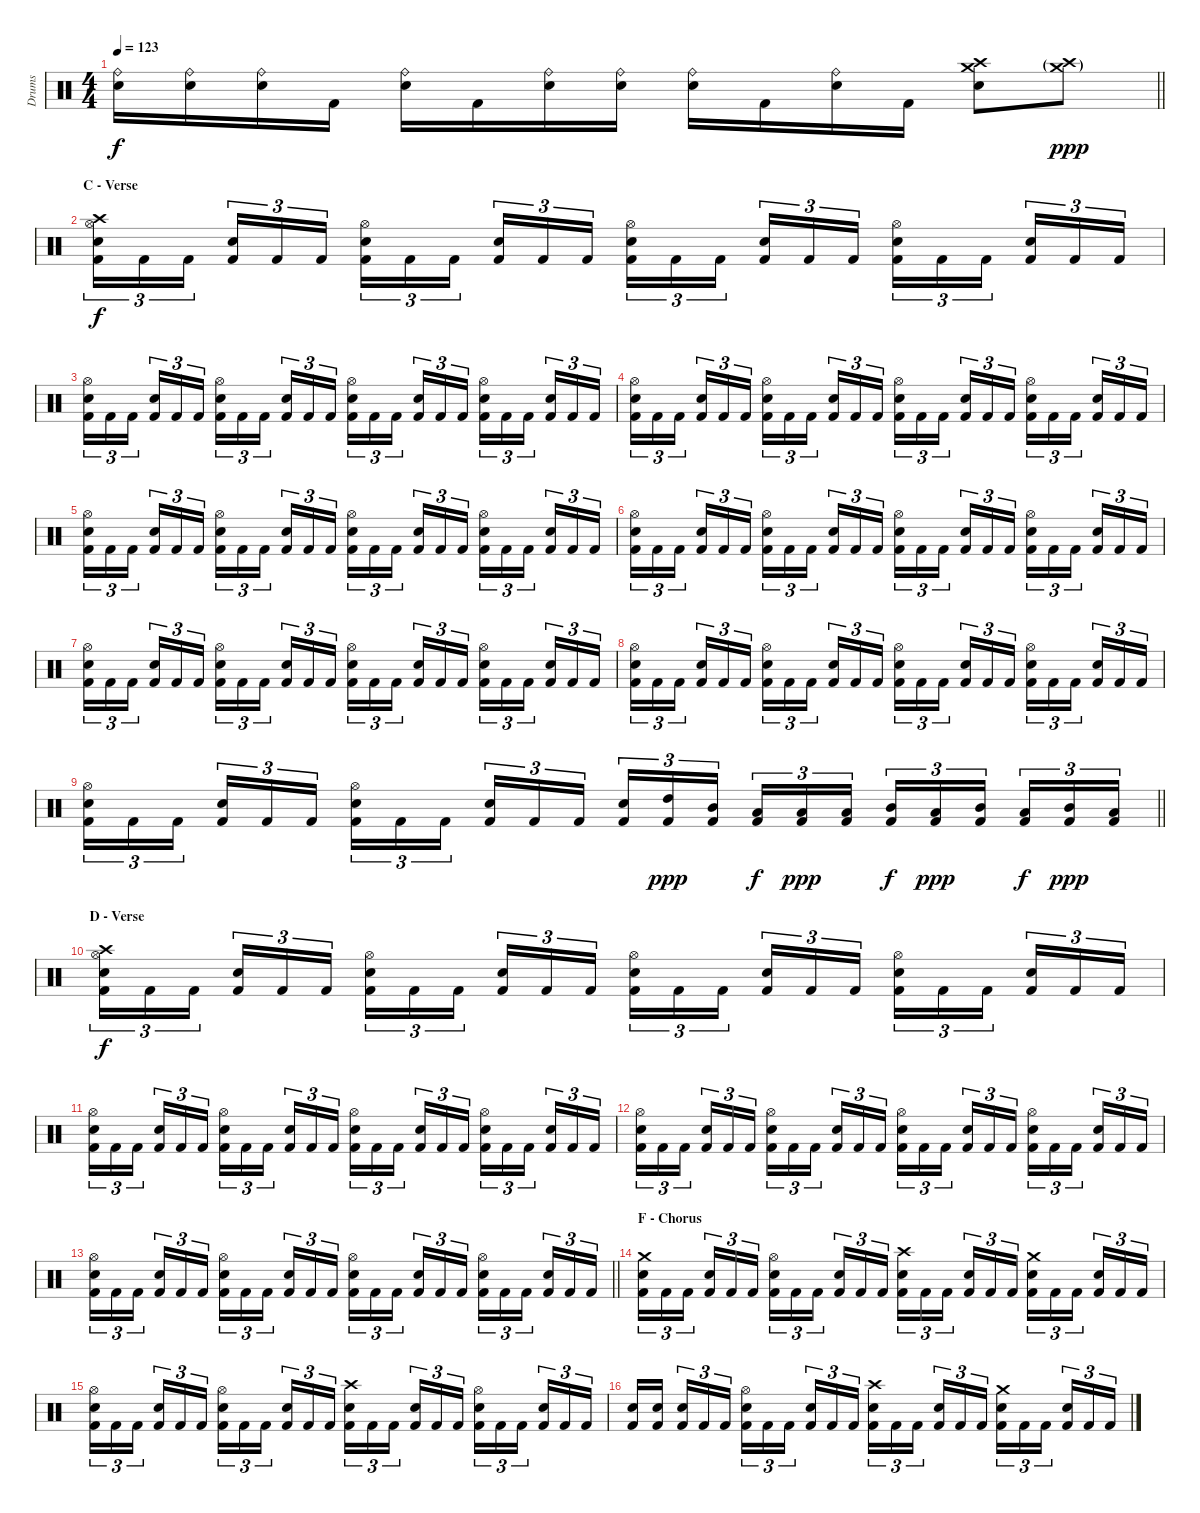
\track ("Drums" "Drums") {instrument percussion}
\staff {score}
\articulation defaults
\ts (4 4)
\tempo 123
\clef neutral
\barLineRight lightlight
\ks c
("Ride (bell)" "Snare (hit) 2").16{dy f} ("Ride (bell)" "Snare (hit) 2").16 ("Ride (bell)" "Snare (hit) 2").16 "Kick (hit) 2".16 ("Ride (bell)" "Snare (hit) 2").16 "Kick (hit) 2".16 ("Ride (bell)" "Snare (hit) 2").16 ("Ride (bell)" "Snare (hit) 2").16 ("Ride (bell)" "Snare (hit) 2").16 "Kick (hit) 2".16 ("Ride (bell)" "Snare (hit) 2").16 "Kick (hit) 2".16 ("Crash medium (hit)" "Crash high (hit)" "Snare (hit) 2").8 ("Crash medium (hit)"{g} "Crash high (hit)"{g}).8{dy ppp} |
\section ("" "C - Verse")
("Crash high (hit)" "Hi-Hat (open)" "Snare (hit) 2" "Kick (hit) 2").16{tu (3 2) dy f} "Kick (hit) 2".16{tu (3 2)} "Kick (hit) 2".16{tu (3 2) beam splitsecondary} ("Snare (hit) 2" "Kick (hit) 2").16{tu (3 2)} "Kick (hit) 2".16{tu (3 2)} "Kick (hit) 2".16{tu (3 2)} ("Hi-Hat (open)" "Snare (hit) 2" "Kick (hit) 2").16{tu (3 2)} "Kick (hit) 2".16{tu (3 2)} "Kick (hit) 2".16{tu (3 2) beam splitsecondary} ("Snare (hit) 2" "Kick (hit) 2").16{tu (3 2)} "Kick (hit) 2".16{tu (3 2)} "Kick (hit) 2".16{tu (3 2)} ("Hi-Hat (open)" "Snare (hit) 2" "Kick (hit) 2").16{tu (3 2)} "Kick (hit) 2".16{tu (3 2)} "Kick (hit) 2".16{tu (3 2) beam splitsecondary} ("Snare (hit) 2" "Kick (hit) 2").16{tu (3 2)} "Kick (hit) 2".16{tu (3 2)} "Kick (hit) 2".16{tu (3 2)} ("Hi-Hat (open)" "Snare (hit) 2" "Kick (hit) 2").16{tu (3 2)} "Kick (hit) 2".16{tu (3 2)} "Kick (hit) 2".16{tu (3 2) beam splitsecondary} ("Snare (hit) 2" "Kick (hit) 2").16{tu (3 2)} "Kick (hit) 2".16{tu (3 2)} "Kick (hit) 2".16{tu (3 2)} |
("Hi-Hat (open)" "Snare (hit) 2" "Kick (hit) 2").16{tu (3 2)} "Kick (hit) 2".16{tu (3 2)} "Kick (hit) 2".16{tu (3 2) beam splitsecondary} ("Snare (hit) 2" "Kick (hit) 2").16{tu (3 2)} "Kick (hit) 2".16{tu (3 2)} "Kick (hit) 2".16{tu (3 2)} ("Hi-Hat (open)" "Snare (hit) 2" "Kick (hit) 2").16{tu (3 2)} "Kick (hit) 2".16{tu (3 2)} "Kick (hit) 2".16{tu (3 2) beam splitsecondary} ("Snare (hit) 2" "Kick (hit) 2").16{tu (3 2)} "Kick (hit) 2".16{tu (3 2)} "Kick (hit) 2".16{tu (3 2)} ("Hi-Hat (open)" "Snare (hit) 2" "Kick (hit) 2").16{tu (3 2)} "Kick (hit) 2".16{tu (3 2)} "Kick (hit) 2".16{tu (3 2) beam splitsecondary} ("Snare (hit) 2" "Kick (hit) 2").16{tu (3 2)} "Kick (hit) 2".16{tu (3 2)} "Kick (hit) 2".16{tu (3 2)} ("Hi-Hat (open)" "Snare (hit) 2" "Kick (hit) 2").16{tu (3 2)} "Kick (hit) 2".16{tu (3 2)} "Kick (hit) 2".16{tu (3 2) beam splitsecondary} ("Snare (hit) 2" "Kick (hit) 2").16{tu (3 2)} "Kick (hit) 2".16{tu (3 2)} "Kick (hit) 2".16{tu (3 2)} |
("Hi-Hat (open)" "Snare (hit) 2" "Kick (hit) 2").16{tu (3 2)} "Kick (hit) 2".16{tu (3 2)} "Kick (hit) 2".16{tu (3 2) beam splitsecondary} ("Snare (hit) 2" "Kick (hit) 2").16{tu (3 2)} "Kick (hit) 2".16{tu (3 2)} "Kick (hit) 2".16{tu (3 2)} ("Hi-Hat (open)" "Snare (hit) 2" "Kick (hit) 2").16{tu (3 2)} "Kick (hit) 2".16{tu (3 2)} "Kick (hit) 2".16{tu (3 2) beam splitsecondary} ("Snare (hit) 2" "Kick (hit) 2").16{tu (3 2)} "Kick (hit) 2".16{tu (3 2)} "Kick (hit) 2".16{tu (3 2)} ("Hi-Hat (open)" "Snare (hit) 2" "Kick (hit) 2").16{tu (3 2)} "Kick (hit) 2".16{tu (3 2)} "Kick (hit) 2".16{tu (3 2) beam splitsecondary} ("Snare (hit) 2" "Kick (hit) 2").16{tu (3 2)} "Kick (hit) 2".16{tu (3 2)} "Kick (hit) 2".16{tu (3 2)} ("Hi-Hat (open)" "Snare (hit) 2" "Kick (hit) 2").16{tu (3 2)} "Kick (hit) 2".16{tu (3 2)} "Kick (hit) 2".16{tu (3 2) beam splitsecondary} ("Snare (hit) 2" "Kick (hit) 2").16{tu (3 2)} "Kick (hit) 2".16{tu (3 2)} "Kick (hit) 2".16{tu (3 2)} |
("Hi-Hat (open)" "Snare (hit) 2" "Kick (hit) 2").16{tu (3 2)} "Kick (hit) 2".16{tu (3 2)} "Kick (hit) 2".16{tu (3 2) beam splitsecondary} ("Snare (hit) 2" "Kick (hit) 2").16{tu (3 2)} "Kick (hit) 2".16{tu (3 2)} "Kick (hit) 2".16{tu (3 2)} ("Hi-Hat (open)" "Snare (hit) 2" "Kick (hit) 2").16{tu (3 2)} "Kick (hit) 2".16{tu (3 2)} "Kick (hit) 2".16{tu (3 2) beam splitsecondary} ("Snare (hit) 2" "Kick (hit) 2").16{tu (3 2)} "Kick (hit) 2".16{tu (3 2)} "Kick (hit) 2".16{tu (3 2)} ("Hi-Hat (open)" "Snare (hit) 2" "Kick (hit) 2").16{tu (3 2)} "Kick (hit) 2".16{tu (3 2)} "Kick (hit) 2".16{tu (3 2) beam splitsecondary} ("Snare (hit) 2" "Kick (hit) 2").16{tu (3 2)} "Kick (hit) 2".16{tu (3 2)} "Kick (hit) 2".16{tu (3 2)} ("Hi-Hat (open)" "Snare (hit) 2" "Kick (hit) 2").16{tu (3 2)} "Kick (hit) 2".16{tu (3 2)} "Kick (hit) 2".16{tu (3 2) beam splitsecondary} ("Snare (hit) 2" "Kick (hit) 2").16{tu (3 2)} "Kick (hit) 2".16{tu (3 2)} "Kick (hit) 2".16{tu (3 2)} |
("Hi-Hat (open)" "Snare (hit) 2" "Kick (hit) 2").16{tu (3 2)} "Kick (hit) 2".16{tu (3 2)} "Kick (hit) 2".16{tu (3 2) beam splitsecondary} ("Snare (hit) 2" "Kick (hit) 2").16{tu (3 2)} "Kick (hit) 2".16{tu (3 2)} "Kick (hit) 2".16{tu (3 2)} ("Hi-Hat (open)" "Snare (hit) 2" "Kick (hit) 2").16{tu (3 2)} "Kick (hit) 2".16{tu (3 2)} "Kick (hit) 2".16{tu (3 2) beam splitsecondary} ("Snare (hit) 2" "Kick (hit) 2").16{tu (3 2)} "Kick (hit) 2".16{tu (3 2)} "Kick (hit) 2".16{tu (3 2)} ("Hi-Hat (open)" "Snare (hit) 2" "Kick (hit) 2").16{tu (3 2)} "Kick (hit) 2".16{tu (3 2)} "Kick (hit) 2".16{tu (3 2) beam splitsecondary} ("Snare (hit) 2" "Kick (hit) 2").16{tu (3 2)} "Kick (hit) 2".16{tu (3 2)} "Kick (hit) 2".16{tu (3 2)} ("Hi-Hat (open)" "Snare (hit) 2" "Kick (hit) 2").16{tu (3 2)} "Kick (hit) 2".16{tu (3 2)} "Kick (hit) 2".16{tu (3 2) beam splitsecondary} ("Snare (hit) 2" "Kick (hit) 2").16{tu (3 2)} "Kick (hit) 2".16{tu (3 2)} "Kick (hit) 2".16{tu (3 2)} |
("Hi-Hat (open)" "Snare (hit) 2" "Kick (hit) 2").16{tu (3 2)} "Kick (hit) 2".16{tu (3 2)} "Kick (hit) 2".16{tu (3 2) beam splitsecondary} ("Snare (hit) 2" "Kick (hit) 2").16{tu (3 2)} "Kick (hit) 2".16{tu (3 2)} "Kick (hit) 2".16{tu (3 2)} ("Hi-Hat (open)" "Snare (hit) 2" "Kick (hit) 2").16{tu (3 2)} "Kick (hit) 2".16{tu (3 2)} "Kick (hit) 2".16{tu (3 2) beam splitsecondary} ("Snare (hit) 2" "Kick (hit) 2").16{tu (3 2)} "Kick (hit) 2".16{tu (3 2)} "Kick (hit) 2".16{tu (3 2)} ("Hi-Hat (open)" "Snare (hit) 2" "Kick (hit) 2").16{tu (3 2)} "Kick (hit) 2".16{tu (3 2)} "Kick (hit) 2".16{tu (3 2) beam splitsecondary} ("Snare (hit) 2" "Kick (hit) 2").16{tu (3 2)} "Kick (hit) 2".16{tu (3 2)} "Kick (hit) 2".16{tu (3 2)} ("Hi-Hat (open)" "Snare (hit) 2" "Kick (hit) 2").16{tu (3 2)} "Kick (hit) 2".16{tu (3 2)} "Kick (hit) 2".16{tu (3 2) beam splitsecondary} ("Snare (hit) 2" "Kick (hit) 2").16{tu (3 2)} "Kick (hit) 2".16{tu (3 2)} "Kick (hit) 2".16{tu (3 2)} |
("Hi-Hat (open)" "Snare (hit) 2" "Kick (hit) 2").16{tu (3 2)} "Kick (hit) 2".16{tu (3 2)} "Kick (hit) 2".16{tu (3 2) beam splitsecondary} ("Snare (hit) 2" "Kick (hit) 2").16{tu (3 2)} "Kick (hit) 2".16{tu (3 2)} "Kick (hit) 2".16{tu (3 2)} ("Hi-Hat (open)" "Snare (hit) 2" "Kick (hit) 2").16{tu (3 2)} "Kick (hit) 2".16{tu (3 2)} "Kick (hit) 2".16{tu (3 2) beam splitsecondary} ("Snare (hit) 2" "Kick (hit) 2").16{tu (3 2)} "Kick (hit) 2".16{tu (3 2)} "Kick (hit) 2".16{tu (3 2)} ("Hi-Hat (open)" "Snare (hit) 2" "Kick (hit) 2").16{tu (3 2)} "Kick (hit) 2".16{tu (3 2)} "Kick (hit) 2".16{tu (3 2) beam splitsecondary} ("Snare (hit) 2" "Kick (hit) 2").16{tu (3 2)} "Kick (hit) 2".16{tu (3 2)} "Kick (hit) 2".16{tu (3 2)} ("Hi-Hat (open)" "Snare (hit) 2" "Kick (hit) 2").16{tu (3 2)} "Kick (hit) 2".16{tu (3 2)} "Kick (hit) 2".16{tu (3 2) beam splitsecondary} ("Snare (hit) 2" "Kick (hit) 2").16{tu (3 2)} "Kick (hit) 2".16{tu (3 2)} "Kick (hit) 2".16{tu (3 2)} |
\barLineRight lightlight
("Hi-Hat (open)" "Snare (hit) 2" "Kick (hit) 2").16{tu (3 2)} "Kick (hit) 2".16{tu (3 2)} "Kick (hit) 2".16{tu (3 2) beam splitsecondary} ("Snare (hit) 2" "Kick (hit) 2").16{tu (3 2)} "Kick (hit) 2".16{tu (3 2)} "Kick (hit) 2".16{tu (3 2)} ("Hi-Hat (open)" "Snare (hit) 2" "Kick (hit) 2").16{tu (3 2)} "Kick (hit) 2".16{tu (3 2)} "Kick (hit) 2".16{tu (3 2) beam splitsecondary} ("Snare (hit) 2" "Kick (hit) 2").16{tu (3 2)} "Kick (hit) 2".16{tu (3 2)} "Kick (hit) 2".16{tu (3 2)} ("Snare (hit) 2" "Kick (hit) 2").16{tu (3 2)} ("High Tom (hit)" "Kick (hit) 2").16{tu (3 2) dy ppp} ("Mid Tom (hit)" "Kick (hit) 2").16{tu (3 2) beam splitsecondary} ("Low Tom (hit)" "Kick (hit) 2").16{tu (3 2) dy f} ("Low Floor Tom (hit)" "Kick (hit) 2").16{tu (3 2) dy ppp} ("Low Tom (hit)" "Kick (hit) 2").16{tu (3 2)} ("Mid Tom (hit)" "Kick (hit) 2").16{tu (3 2) dy f} ("Low Tom (hit)" "Kick (hit) 2").16{tu (3 2) dy ppp} ("Mid Tom (hit)" "Kick (hit) 2").16{tu (3 2) beam splitsecondary} ("Low Tom (hit)" "Kick (hit) 2").16{tu (3 2) dy f} ("Mid Tom (hit)" "Kick (hit) 2").16{tu (3 2) dy ppp} ("Low Tom (hit)" "Kick (hit) 2").16{tu (3 2)} |
\section ("" "D - Verse")
("Crash high (hit)" "Hi-Hat (open)" "Snare (hit) 2" "Kick (hit) 2").16{tu (3 2) dy f} "Kick (hit) 2".16{tu (3 2)} "Kick (hit) 2".16{tu (3 2) beam splitsecondary} ("Snare (hit) 2" "Kick (hit) 2").16{tu (3 2)} "Kick (hit) 2".16{tu (3 2)} "Kick (hit) 2".16{tu (3 2)} ("Hi-Hat (open)" "Snare (hit) 2" "Kick (hit) 2").16{tu (3 2)} "Kick (hit) 2".16{tu (3 2)} "Kick (hit) 2".16{tu (3 2) beam splitsecondary} ("Snare (hit) 2" "Kick (hit) 2").16{tu (3 2)} "Kick (hit) 2".16{tu (3 2)} "Kick (hit) 2".16{tu (3 2)} ("Hi-Hat (open)" "Snare (hit) 2" "Kick (hit) 2").16{tu (3 2)} "Kick (hit) 2".16{tu (3 2)} "Kick (hit) 2".16{tu (3 2) beam splitsecondary} ("Snare (hit) 2" "Kick (hit) 2").16{tu (3 2)} "Kick (hit) 2".16{tu (3 2)} "Kick (hit) 2".16{tu (3 2)} ("Hi-Hat (open)" "Snare (hit) 2" "Kick (hit) 2").16{tu (3 2)} "Kick (hit) 2".16{tu (3 2)} "Kick (hit) 2".16{tu (3 2) beam splitsecondary} ("Snare (hit) 2" "Kick (hit) 2").16{tu (3 2)} "Kick (hit) 2".16{tu (3 2)} "Kick (hit) 2".16{tu (3 2)} |
("Hi-Hat (open)" "Snare (hit) 2" "Kick (hit) 2").16{tu (3 2)} "Kick (hit) 2".16{tu (3 2)} "Kick (hit) 2".16{tu (3 2) beam splitsecondary} ("Snare (hit) 2" "Kick (hit) 2").16{tu (3 2)} "Kick (hit) 2".16{tu (3 2)} "Kick (hit) 2".16{tu (3 2)} ("Hi-Hat (open)" "Snare (hit) 2" "Kick (hit) 2").16{tu (3 2)} "Kick (hit) 2".16{tu (3 2)} "Kick (hit) 2".16{tu (3 2) beam splitsecondary} ("Snare (hit) 2" "Kick (hit) 2").16{tu (3 2)} "Kick (hit) 2".16{tu (3 2)} "Kick (hit) 2".16{tu (3 2)} ("Hi-Hat (open)" "Snare (hit) 2" "Kick (hit) 2").16{tu (3 2)} "Kick (hit) 2".16{tu (3 2)} "Kick (hit) 2".16{tu (3 2) beam splitsecondary} ("Snare (hit) 2" "Kick (hit) 2").16{tu (3 2)} "Kick (hit) 2".16{tu (3 2)} "Kick (hit) 2".16{tu (3 2)} ("Hi-Hat (open)" "Snare (hit) 2" "Kick (hit) 2").16{tu (3 2)} "Kick (hit) 2".16{tu (3 2)} "Kick (hit) 2".16{tu (3 2) beam splitsecondary} ("Snare (hit) 2" "Kick (hit) 2").16{tu (3 2)} "Kick (hit) 2".16{tu (3 2)} "Kick (hit) 2".16{tu (3 2)} |
("Hi-Hat (open)" "Snare (hit) 2" "Kick (hit) 2").16{tu (3 2)} "Kick (hit) 2".16{tu (3 2)} "Kick (hit) 2".16{tu (3 2) beam splitsecondary} ("Snare (hit) 2" "Kick (hit) 2").16{tu (3 2)} "Kick (hit) 2".16{tu (3 2)} "Kick (hit) 2".16{tu (3 2)} ("Hi-Hat (open)" "Snare (hit) 2" "Kick (hit) 2").16{tu (3 2)} "Kick (hit) 2".16{tu (3 2)} "Kick (hit) 2".16{tu (3 2) beam splitsecondary} ("Snare (hit) 2" "Kick (hit) 2").16{tu (3 2)} "Kick (hit) 2".16{tu (3 2)} "Kick (hit) 2".16{tu (3 2)} ("Hi-Hat (open)" "Snare (hit) 2" "Kick (hit) 2").16{tu (3 2)} "Kick (hit) 2".16{tu (3 2)} "Kick (hit) 2".16{tu (3 2) beam splitsecondary} ("Snare (hit) 2" "Kick (hit) 2").16{tu (3 2)} "Kick (hit) 2".16{tu (3 2)} "Kick (hit) 2".16{tu (3 2)} ("Hi-Hat (open)" "Snare (hit) 2" "Kick (hit) 2").16{tu (3 2)} "Kick (hit) 2".16{tu (3 2)} "Kick (hit) 2".16{tu (3 2) beam splitsecondary} ("Snare (hit) 2" "Kick (hit) 2").16{tu (3 2)} "Kick (hit) 2".16{tu (3 2)} "Kick (hit) 2".16{tu (3 2)} |
\barLineRight lightlight
("Hi-Hat (open)" "Snare (hit) 2" "Kick (hit) 2").16{tu (3 2)} "Kick (hit) 2".16{tu (3 2)} "Kick (hit) 2".16{tu (3 2) beam splitsecondary} ("Snare (hit) 2" "Kick (hit) 2").16{tu (3 2)} "Kick (hit) 2".16{tu (3 2)} "Kick (hit) 2".16{tu (3 2)} ("Hi-Hat (open)" "Snare (hit) 2" "Kick (hit) 2").16{tu (3 2)} "Kick (hit) 2".16{tu (3 2)} "Kick (hit) 2".16{tu (3 2) beam splitsecondary} ("Snare (hit) 2" "Kick (hit) 2").16{tu (3 2)} "Kick (hit) 2".16{tu (3 2)} "Kick (hit) 2".16{tu (3 2)} ("Hi-Hat (open)" "Snare (hit) 2" "Kick (hit) 2").16{tu (3 2)} "Kick (hit) 2".16{tu (3 2)} "Kick (hit) 2".16{tu (3 2) beam splitsecondary} ("Snare (hit) 2" "Kick (hit) 2").16{tu (3 2)} "Kick (hit) 2".16{tu (3 2)} "Kick (hit) 2".16{tu (3 2)} ("Hi-Hat (open)" "Snare (hit) 2" "Kick (hit) 2").16{tu (3 2)} "Kick (hit) 2".16{tu (3 2)} "Kick (hit) 2".16{tu (3 2) beam splitsecondary} ("Snare (hit) 2" "Kick (hit) 2").16{tu (3 2)} "Kick (hit) 2".16{tu (3 2)} "Kick (hit) 2".16{tu (3 2)} |
\section ("" "F - Chorus")
("Crash medium (hit)" "Snare (hit) 2" "Kick (hit) 2").16{tu (3 2)} "Kick (hit) 2".16{tu (3 2)} "Kick (hit) 2".16{tu (3 2) beam splitsecondary} ("Snare (hit) 2" "Kick (hit) 2").16{tu (3 2)} "Kick (hit) 2".16{tu (3 2)} "Kick (hit) 2".16{tu (3 2)} ("Hi-Hat (open)" "Snare (hit) 2" "Kick (hit) 2").16{tu (3 2)} "Kick (hit) 2".16{tu (3 2)} "Kick (hit) 2".16{tu (3 2) beam splitsecondary} ("Snare (hit) 2" "Kick (hit) 2").16{tu (3 2)} "Kick (hit) 2".16{tu (3 2)} "Kick (hit) 2".16{tu (3 2)} ("Crash high (hit)" "Snare (hit) 2" "Kick (hit) 2").16{tu (3 2)} "Kick (hit) 2".16{tu (3 2)} "Kick (hit) 2".16{tu (3 2) beam splitsecondary} ("Snare (hit) 2" "Kick (hit) 2").16{tu (3 2)} "Kick (hit) 2".16{tu (3 2)} "Kick (hit) 2".16{tu (3 2)} ("Crash medium (hit)" "Snare (hit) 2" "Kick (hit) 2").16{tu (3 2)} "Kick (hit) 2".16{tu (3 2)} "Kick (hit) 2".16{tu (3 2) beam splitsecondary} ("Snare (hit) 2" "Kick (hit) 2").16{tu (3 2)} "Kick (hit) 2".16{tu (3 2)} "Kick (hit) 2".16{tu (3 2)} |
("Hi-Hat (open)" "Snare (hit) 2" "Kick (hit) 2").16{tu (3 2)} "Kick (hit) 2".16{tu (3 2)} "Kick (hit) 2".16{tu (3 2) beam splitsecondary} ("Snare (hit) 2" "Kick (hit) 2").16{tu (3 2)} "Kick (hit) 2".16{tu (3 2)} "Kick (hit) 2".16{tu (3 2)} ("Hi-Hat (open)" "Snare (hit) 2" "Kick (hit) 2").16{tu (3 2)} "Kick (hit) 2".16{tu (3 2)} "Kick (hit) 2".16{tu (3 2) beam splitsecondary} ("Snare (hit) 2" "Kick (hit) 2").16{tu (3 2)} "Kick (hit) 2".16{tu (3 2)} "Kick (hit) 2".16{tu (3 2)} ("Crash high (hit)" "Snare (hit) 2" "Kick (hit) 2").16{tu (3 2)} "Kick (hit) 2".16{tu (3 2)} "Kick (hit) 2".16{tu (3 2) beam splitsecondary} ("Snare (hit) 2" "Kick (hit) 2").16{tu (3 2)} "Kick (hit) 2".16{tu (3 2)} "Kick (hit) 2".16{tu (3 2)} ("Hi-Hat (open)" "Snare (hit) 2" "Kick (hit) 2").16{tu (3 2)} "Kick (hit) 2".16{tu (3 2)} "Kick (hit) 2".16{tu (3 2) beam splitsecondary} ("Snare (hit) 2" "Kick (hit) 2").16{tu (3 2)} "Kick (hit) 2".16{tu (3 2)} "Kick (hit) 2".16{tu (3 2)} |
("Snare (hit) 2" "Kick (hit) 2").16 ("Snare (hit) 2" "Kick (hit) 2").16{beam splitsecondary} ("Snare (hit) 2" "Kick (hit) 2").16{tu (3 2)} "Kick (hit) 2".16{tu (3 2)} "Kick (hit) 2".16{tu (3 2)} ("Hi-Hat (open)" "Snare (hit) 2" "Kick (hit) 2").16{tu (3 2)} "Kick (hit) 2".16{tu (3 2)} "Kick (hit) 2".16{tu (3 2) beam splitsecondary} ("Snare (hit) 2" "Kick (hit) 2").16{tu (3 2)} "Kick (hit) 2".16{tu (3 2)} "Kick (hit) 2".16{tu (3 2)} ("Crash high (hit)" "Snare (hit) 2" "Kick (hit) 2").16{tu (3 2)} "Kick (hit) 2".16{tu (3 2)} "Kick (hit) 2".16{tu (3 2) beam splitsecondary} ("Snare (hit) 2" "Kick (hit) 2").16{tu (3 2)} "Kick (hit) 2".16{tu (3 2)} "Kick (hit) 2".16{tu (3 2)} ("Crash medium (hit)" "Snare (hit) 2" "Kick (hit) 2").16{tu (3 2)} "Kick (hit) 2".16{tu (3 2)} "Kick (hit) 2".16{tu (3 2) beam splitsecondary} ("Snare (hit) 2" "Kick (hit) 2").16{tu (3 2)} "Kick (hit) 2".16{tu (3 2)} "Kick (hit) 2".16{tu (3 2)}
